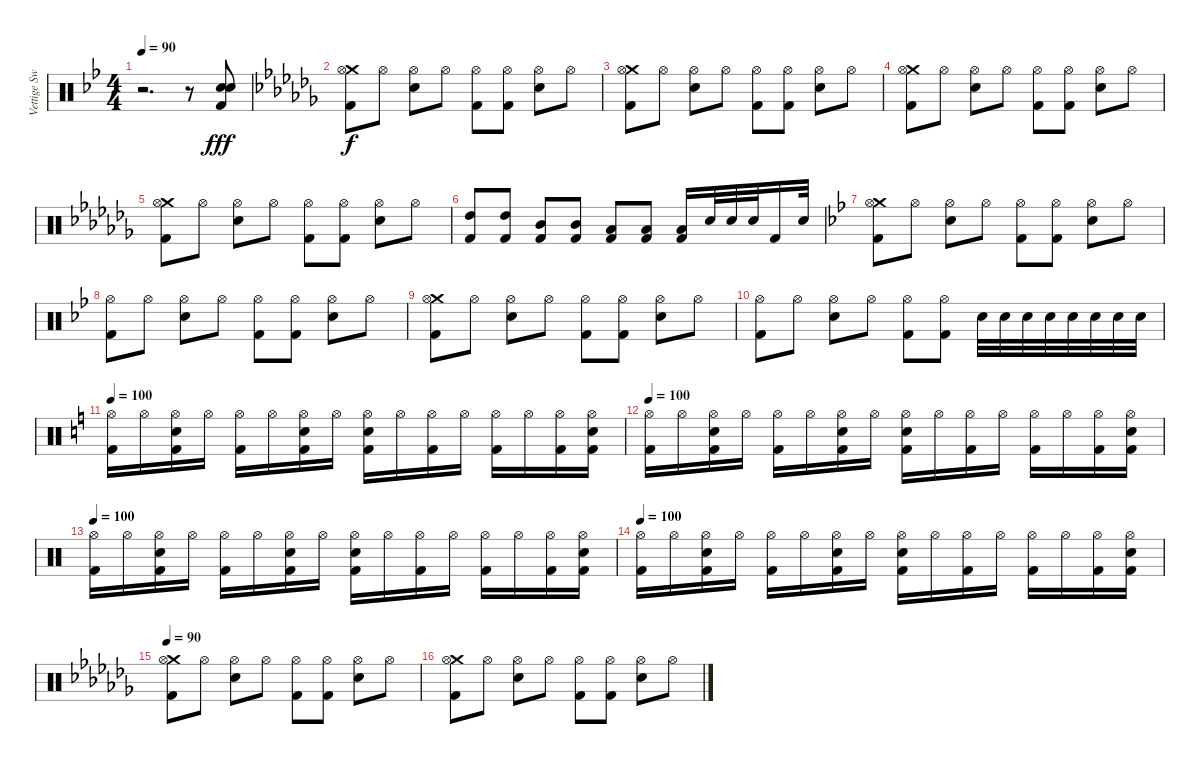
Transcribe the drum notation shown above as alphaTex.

\track ("Vettige Swa" "Vettige Sw") {instrument percussion}
\staff {score}
\articulation defaults
\ts (4 4)
\tempo 90
\clef neutral
\ks gminor
r.2{d dy fff} r.8 ("Electric Snare (hit)" "Electric Snare (hit)" "Kick (hit) 2").8 |
\ks abminor
("Kick (hit) 2" "Crash medium (hit)" "Hi-Hat (open)").8{dy f} "Hi-Hat (open)".8 ("Hi-Hat (open)" "Electric Snare (hit)").8 "Hi-Hat (open)".8 ("Hi-Hat (open)" "Kick (hit) 2").8 ("Hi-Hat (open)" "Kick (hit) 2").8 ("Hi-Hat (open)" "Electric Snare (hit)").8 "Hi-Hat (open)".8 |
("Kick (hit) 2" "Crash medium (hit)" "Hi-Hat (open)").8 "Hi-Hat (open)".8 ("Hi-Hat (open)" "Electric Snare (hit)").8 "Hi-Hat (open)".8 ("Hi-Hat (open)" "Kick (hit) 2").8 ("Hi-Hat (open)" "Kick (hit) 2").8 ("Hi-Hat (open)" "Electric Snare (hit)").8 "Hi-Hat (open)".8 |
("Kick (hit) 2" "Crash medium (hit)" "Hi-Hat (open)").8 "Hi-Hat (open)".8 ("Hi-Hat (open)" "Electric Snare (hit)").8 "Hi-Hat (open)".8 ("Hi-Hat (open)" "Kick (hit) 2").8 ("Hi-Hat (open)" "Kick (hit) 2").8 ("Hi-Hat (open)" "Electric Snare (hit)").8 "Hi-Hat (open)".8 |
("Kick (hit) 2" "Crash medium (hit)" "Hi-Hat (open)").8 "Hi-Hat (open)".8 ("Hi-Hat (open)" "Electric Snare (hit)").8 "Hi-Hat (open)".8 ("Hi-Hat (open)" "Kick (hit) 2").8 ("Hi-Hat (open)" "Kick (hit) 2").8 ("Hi-Hat (open)" "Electric Snare (hit)").8 "Hi-Hat (open)".8 |
("Kick (hit) 2" "High Tom (hit)").8 ("Kick (hit) 2" "High Tom (hit)").8 ("Kick (hit) 2" "Mid Tom (hit)").8 ("Kick (hit) 2" "Mid Tom (hit)").8 ("Kick (hit) 2" "Low Tom (hit)").8 ("Kick (hit) 2" "Low Tom (hit)").8 ("Kick (hit) 2" "Low Floor Tom (hit)").16 "Electric Snare (hit)".32 "Electric Snare (hit)".32 "Electric Snare (hit)".32 "Kick (hit) 2".16 "Electric Snare (hit)".32 |
\ks gminor
("Kick (hit) 2" "Crash medium (hit)" "Hi-Hat (open)").8 "Hi-Hat (open)".8 ("Hi-Hat (open)" "Electric Snare (hit)").8 "Hi-Hat (open)".8 ("Hi-Hat (open)" "Kick (hit) 2").8 ("Hi-Hat (open)" "Kick (hit) 2").8 ("Hi-Hat (open)" "Electric Snare (hit)").8 "Hi-Hat (open)".8 |
("Kick (hit) 2" "Hi-Hat (open)").8 "Hi-Hat (open)".8 ("Hi-Hat (open)" "Electric Snare (hit)").8 "Hi-Hat (open)".8 ("Hi-Hat (open)" "Kick (hit) 2").8 ("Hi-Hat (open)" "Kick (hit) 2").8 ("Hi-Hat (open)" "Electric Snare (hit)").8 "Hi-Hat (open)".8 |
("Kick (hit) 2" "Crash medium (hit)" "Hi-Hat (open)").8 "Hi-Hat (open)".8 ("Hi-Hat (open)" "Electric Snare (hit)").8 "Hi-Hat (open)".8 ("Hi-Hat (open)" "Kick (hit) 2").8 ("Hi-Hat (open)" "Kick (hit) 2").8 ("Hi-Hat (open)" "Electric Snare (hit)").8 "Hi-Hat (open)".8 |
("Kick (hit) 2" "Hi-Hat (open)").8 "Hi-Hat (open)".8 ("Hi-Hat (open)" "Electric Snare (hit)").8 "Hi-Hat (open)".8 ("Hi-Hat (open)" "Kick (hit) 2").8 ("Hi-Hat (open)" "Kick (hit) 2").8 "Electric Snare (hit)".32 "Electric Snare (hit)".32 "Electric Snare (hit)".32 "Electric Snare (hit)".32 "Electric Snare (hit)".32 "Electric Snare (hit)".32 "Electric Snare (hit)".32 "Electric Snare (hit)".32 |
\tempo 100
\ks aminor
("Hi-Hat (open)" "Kick (hit) 2").16 "Hi-Hat (open)".16 ("Hi-Hat (open)" "Electric Snare (hit)" "Kick (hit) 2").16 "Hi-Hat (open)".16 ("Hi-Hat (open)" "Kick (hit) 2").16 "Hi-Hat (open)".16 ("Hi-Hat (open)" "Kick (hit) 2" "Electric Snare (hit)").16 "Hi-Hat (open)".16 ("Hi-Hat (open)" "Kick (hit) 2" "Electric Snare (hit)").16 "Hi-Hat (open)".16 ("Hi-Hat (open)" "Kick (hit) 2").16 "Hi-Hat (open)".16 ("Hi-Hat (open)" "Kick (hit) 2").16 "Hi-Hat (open)".16 ("Hi-Hat (open)" "Kick (hit) 2").16 ("Hi-Hat (open)" "Electric Snare (hit)" "Kick (hit) 2").16 |
\tempo 100
("Hi-Hat (open)" "Kick (hit) 2").16 "Hi-Hat (open)".16 ("Hi-Hat (open)" "Electric Snare (hit)" "Kick (hit) 2").16 "Hi-Hat (open)".16 ("Hi-Hat (open)" "Kick (hit) 2").16 "Hi-Hat (open)".16 ("Hi-Hat (open)" "Kick (hit) 2" "Electric Snare (hit)").16 "Hi-Hat (open)".16 ("Hi-Hat (open)" "Kick (hit) 2" "Electric Snare (hit)").16 "Hi-Hat (open)".16 ("Hi-Hat (open)" "Kick (hit) 2").16 "Hi-Hat (open)".16 ("Hi-Hat (open)" "Kick (hit) 2").16 "Hi-Hat (open)".16 ("Hi-Hat (open)" "Kick (hit) 2").16 ("Hi-Hat (open)" "Electric Snare (hit)" "Kick (hit) 2").16 |
\tempo 100
("Hi-Hat (open)" "Kick (hit) 2").16 "Hi-Hat (open)".16 ("Hi-Hat (open)" "Electric Snare (hit)" "Kick (hit) 2").16 "Hi-Hat (open)".16 ("Hi-Hat (open)" "Kick (hit) 2").16 "Hi-Hat (open)".16 ("Hi-Hat (open)" "Kick (hit) 2" "Electric Snare (hit)").16 "Hi-Hat (open)".16 ("Hi-Hat (open)" "Kick (hit) 2" "Electric Snare (hit)").16 "Hi-Hat (open)".16 ("Hi-Hat (open)" "Kick (hit) 2").16 "Hi-Hat (open)".16 ("Hi-Hat (open)" "Kick (hit) 2").16 "Hi-Hat (open)".16 ("Hi-Hat (open)" "Kick (hit) 2").16 ("Hi-Hat (open)" "Electric Snare (hit)" "Kick (hit) 2").16 |
\tempo 100
("Hi-Hat (open)" "Kick (hit) 2").16 "Hi-Hat (open)".16 ("Hi-Hat (open)" "Electric Snare (hit)" "Kick (hit) 2").16 "Hi-Hat (open)".16 ("Hi-Hat (open)" "Kick (hit) 2").16 "Hi-Hat (open)".16 ("Hi-Hat (open)" "Kick (hit) 2" "Electric Snare (hit)").16 "Hi-Hat (open)".16 ("Hi-Hat (open)" "Kick (hit) 2" "Electric Snare (hit)").16 "Hi-Hat (open)".16 ("Hi-Hat (open)" "Kick (hit) 2").16 "Hi-Hat (open)".16 ("Hi-Hat (open)" "Kick (hit) 2").16 "Hi-Hat (open)".16 ("Hi-Hat (open)" "Kick (hit) 2").16 ("Hi-Hat (open)" "Electric Snare (hit)" "Kick (hit) 2").16 |
\tempo 90
\ks abminor
("Kick (hit) 2" "Crash medium (hit)" "Hi-Hat (open)").8 "Hi-Hat (open)".8 ("Hi-Hat (open)" "Electric Snare (hit)").8 "Hi-Hat (open)".8 ("Hi-Hat (open)" "Kick (hit) 2").8 ("Hi-Hat (open)" "Kick (hit) 2").8 ("Hi-Hat (open)" "Electric Snare (hit)").8 "Hi-Hat (open)".8 |
("Kick (hit) 2" "Crash medium (hit)" "Hi-Hat (open)").8 "Hi-Hat (open)".8 ("Hi-Hat (open)" "Electric Snare (hit)").8 "Hi-Hat (open)".8 ("Hi-Hat (open)" "Kick (hit) 2").8 ("Hi-Hat (open)" "Kick (hit) 2").8 ("Hi-Hat (open)" "Electric Snare (hit)").8 "Hi-Hat (open)".8
